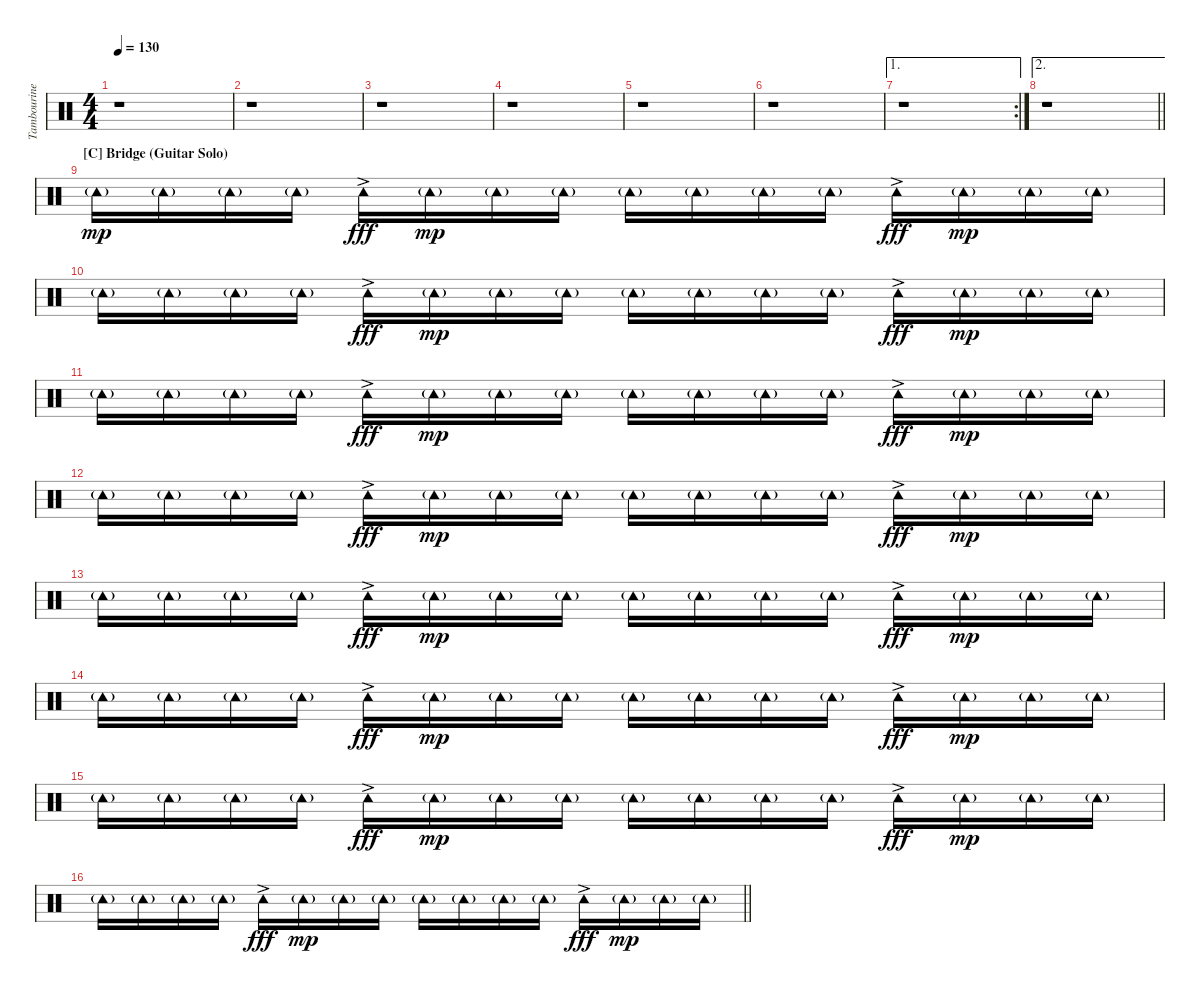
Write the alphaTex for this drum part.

\track ("Tambourine (?)" "Tambourine") {instrument percussion}
\staff {score}
\articulation defaults
\ts (4 4)
\tempo 130
\clef neutral
\ks c
r.1{dy mp} |
r.1 |
r.1 |
r.1 |
r.1 |
r.1 |
\ae 1
\rc 2
r.1 |
\ae 2
\barLineRight lightlight
r.1 |
\section ("" "[C] Bridge (Guitar Solo)")
"Tambourine (hit)"{g}.16 "Tambourine (hit)"{g}.16 "Tambourine (hit)"{g}.16 "Tambourine (hit)"{g}.16 "Tambourine (hit)"{ac}.16{dy fff} "Tambourine (hit)"{g}.16{dy mp} "Tambourine (hit)"{g}.16 "Tambourine (hit)"{g}.16 "Tambourine (hit)"{g}.16 "Tambourine (hit)"{g}.16 "Tambourine (hit)"{g}.16 "Tambourine (hit)"{g}.16 "Tambourine (hit)"{ac}.16{dy fff} "Tambourine (hit)"{g}.16{dy mp} "Tambourine (hit)"{g}.16 "Tambourine (hit)"{g}.16 |
"Tambourine (hit)"{g}.16 "Tambourine (hit)"{g}.16 "Tambourine (hit)"{g}.16 "Tambourine (hit)"{g}.16 "Tambourine (hit)"{ac}.16{dy fff} "Tambourine (hit)"{g}.16{dy mp} "Tambourine (hit)"{g}.16 "Tambourine (hit)"{g}.16 "Tambourine (hit)"{g}.16 "Tambourine (hit)"{g}.16 "Tambourine (hit)"{g}.16 "Tambourine (hit)"{g}.16 "Tambourine (hit)"{ac}.16{dy fff} "Tambourine (hit)"{g}.16{dy mp} "Tambourine (hit)"{g}.16 "Tambourine (hit)"{g}.16 |
"Tambourine (hit)"{g}.16 "Tambourine (hit)"{g}.16 "Tambourine (hit)"{g}.16 "Tambourine (hit)"{g}.16 "Tambourine (hit)"{ac}.16{dy fff} "Tambourine (hit)"{g}.16{dy mp} "Tambourine (hit)"{g}.16 "Tambourine (hit)"{g}.16 "Tambourine (hit)"{g}.16 "Tambourine (hit)"{g}.16 "Tambourine (hit)"{g}.16 "Tambourine (hit)"{g}.16 "Tambourine (hit)"{ac}.16{dy fff} "Tambourine (hit)"{g}.16{dy mp} "Tambourine (hit)"{g}.16 "Tambourine (hit)"{g}.16 |
"Tambourine (hit)"{g}.16 "Tambourine (hit)"{g}.16 "Tambourine (hit)"{g}.16 "Tambourine (hit)"{g}.16 "Tambourine (hit)"{ac}.16{dy fff} "Tambourine (hit)"{g}.16{dy mp} "Tambourine (hit)"{g}.16 "Tambourine (hit)"{g}.16 "Tambourine (hit)"{g}.16 "Tambourine (hit)"{g}.16 "Tambourine (hit)"{g}.16 "Tambourine (hit)"{g}.16 "Tambourine (hit)"{ac}.16{dy fff} "Tambourine (hit)"{g}.16{dy mp} "Tambourine (hit)"{g}.16 "Tambourine (hit)"{g}.16 |
"Tambourine (hit)"{g}.16 "Tambourine (hit)"{g}.16 "Tambourine (hit)"{g}.16 "Tambourine (hit)"{g}.16 "Tambourine (hit)"{ac}.16{dy fff} "Tambourine (hit)"{g}.16{dy mp} "Tambourine (hit)"{g}.16 "Tambourine (hit)"{g}.16 "Tambourine (hit)"{g}.16 "Tambourine (hit)"{g}.16 "Tambourine (hit)"{g}.16 "Tambourine (hit)"{g}.16 "Tambourine (hit)"{ac}.16{dy fff} "Tambourine (hit)"{g}.16{dy mp} "Tambourine (hit)"{g}.16 "Tambourine (hit)"{g}.16 |
"Tambourine (hit)"{g}.16 "Tambourine (hit)"{g}.16 "Tambourine (hit)"{g}.16 "Tambourine (hit)"{g}.16 "Tambourine (hit)"{ac}.16{dy fff} "Tambourine (hit)"{g}.16{dy mp} "Tambourine (hit)"{g}.16 "Tambourine (hit)"{g}.16 "Tambourine (hit)"{g}.16 "Tambourine (hit)"{g}.16 "Tambourine (hit)"{g}.16 "Tambourine (hit)"{g}.16 "Tambourine (hit)"{ac}.16{dy fff} "Tambourine (hit)"{g}.16{dy mp} "Tambourine (hit)"{g}.16 "Tambourine (hit)"{g}.16 |
"Tambourine (hit)"{g}.16 "Tambourine (hit)"{g}.16 "Tambourine (hit)"{g}.16 "Tambourine (hit)"{g}.16 "Tambourine (hit)"{ac}.16{dy fff} "Tambourine (hit)"{g}.16{dy mp} "Tambourine (hit)"{g}.16 "Tambourine (hit)"{g}.16 "Tambourine (hit)"{g}.16 "Tambourine (hit)"{g}.16 "Tambourine (hit)"{g}.16 "Tambourine (hit)"{g}.16 "Tambourine (hit)"{ac}.16{dy fff} "Tambourine (hit)"{g}.16{dy mp} "Tambourine (hit)"{g}.16 "Tambourine (hit)"{g}.16 |
\barLineRight lightlight "Tambourine (hit)"{g}.16 "Tambourine (hit)"{g}.16 "Tambourine (hit)"{g}.16 "Tambourine (hit)"{g}.16 "Tambourine (hit)"{ac}.16{dy fff} "Tambourine (hit)"{g}.16{dy mp} "Tambourine (hit)"{g}.16 "Tambourine (hit)"{g}.16 "Tambourine (hit)"{g}.16 "Tambourine (hit)"{g}.16 "Tambourine (hit)"{g}.16 "Tambourine (hit)"{g}.16 "Tambourine (hit)"{ac}.16{dy fff} "Tambourine (hit)"{g}.16{dy mp} "Tambourine (hit)"{g}.16 "Tambourine (hit)"{g}.16
